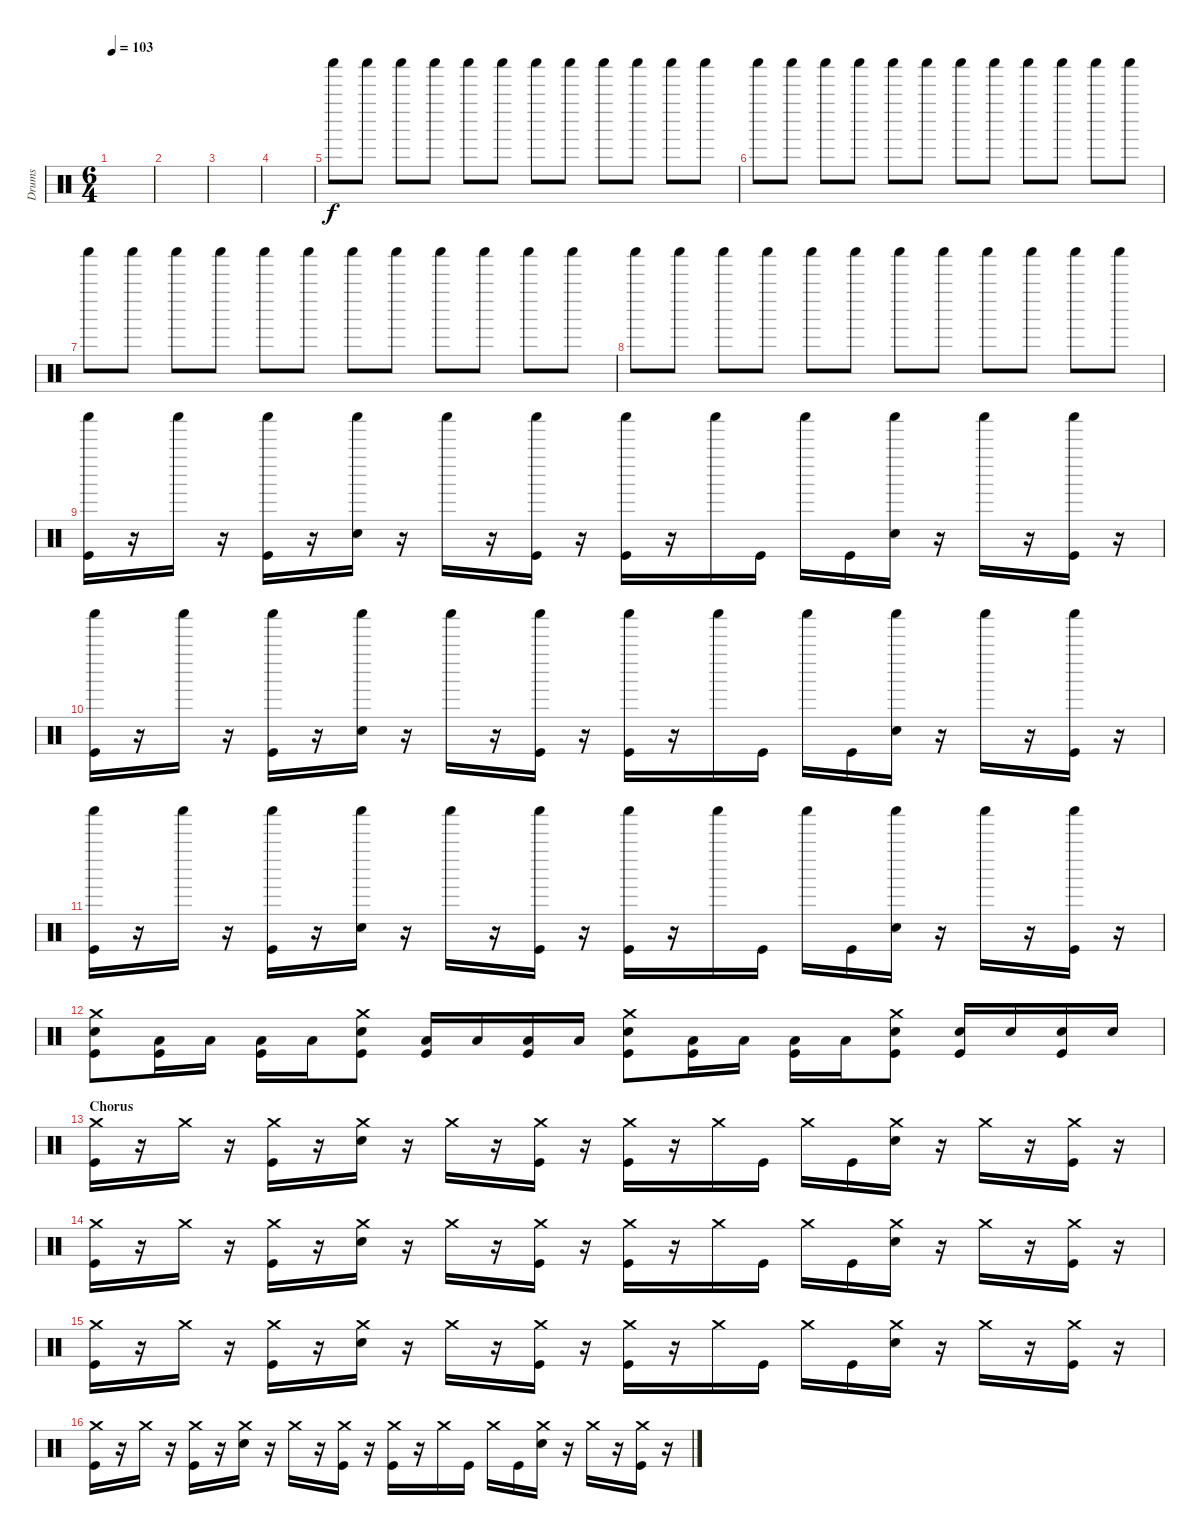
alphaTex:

\track ("Drums" "Drums") {instrument percussion}
\staff {score}
\articulation defaults
\ts (6 4)
\tempo 103
\clef neutral
\ks c
|
|
|
|
"Shaker (hit)".8{volume 8} "Shaker (hit)".8 "Shaker (hit)".8 "Shaker (hit)".8 "Shaker (hit)".8 "Shaker (hit)".8 "Shaker (hit)".8 "Shaker (hit)".8 "Shaker (hit)".8 "Shaker (hit)".8 "Shaker (hit)".8 "Shaker (hit)".8 |
"Shaker (hit)".8 "Shaker (hit)".8 "Shaker (hit)".8 "Shaker (hit)".8 "Shaker (hit)".8 "Shaker (hit)".8 "Shaker (hit)".8 "Shaker (hit)".8 "Shaker (hit)".8 "Shaker (hit)".8 "Shaker (hit)".8 "Shaker (hit)".8 |
"Shaker (hit)".8 "Shaker (hit)".8 "Shaker (hit)".8 "Shaker (hit)".8 "Shaker (hit)".8 "Shaker (hit)".8 "Shaker (hit)".8 "Shaker (hit)".8 "Shaker (hit)".8 "Shaker (hit)".8 "Shaker (hit)".8 "Shaker (hit)".8 |
"Shaker (hit)".8 "Shaker (hit)".8 "Shaker (hit)".8 "Shaker (hit)".8 "Shaker (hit)".8 "Shaker (hit)".8 "Shaker (hit)".8 "Shaker (hit)".8 "Shaker (hit)".8 "Shaker (hit)".8 "Shaker (hit)".8 "Shaker (hit)".8 |
("Shaker (hit)" "Kick (hit)").16 r.16 "Shaker (hit)".16 r.16 ("Shaker (hit)" "Kick (hit)").16 r.16 ("Shaker (hit)" "Electric Snare (hit)").16 r.16 "Shaker (hit)".16 r.16 ("Shaker (hit)" "Kick (hit)").16 r.16 ("Shaker (hit)" "Kick (hit)").16 r.16 "Shaker (hit)".16 "Kick (hit)".16 "Shaker (hit)".16 "Kick (hit)".16 ("Shaker (hit)" "Electric Snare (hit)").16 r.16 "Shaker (hit)".16 r.16 ("Shaker (hit)" "Kick (hit)").16 r.16 |
("Shaker (hit)" "Kick (hit)").16 r.16 "Shaker (hit)".16 r.16 ("Shaker (hit)" "Kick (hit)").16 r.16 ("Shaker (hit)" "Electric Snare (hit)").16 r.16 "Shaker (hit)".16 r.16 ("Shaker (hit)" "Kick (hit)").16 r.16 ("Shaker (hit)" "Kick (hit)").16 r.16 "Shaker (hit)".16 "Kick (hit)".16 "Shaker (hit)".16 "Kick (hit)".16 ("Shaker (hit)" "Electric Snare (hit)").16 r.16 "Shaker (hit)".16 r.16 ("Shaker (hit)" "Kick (hit)").16 r.16 |
("Shaker (hit)" "Kick (hit)").16 r.16 "Shaker (hit)".16 r.16 ("Shaker (hit)" "Kick (hit)").16 r.16 ("Shaker (hit)" "Electric Snare (hit)").16 r.16 "Shaker (hit)".16 r.16 ("Shaker (hit)" "Kick (hit)").16 r.16 ("Shaker (hit)" "Kick (hit)").16 r.16 "Shaker (hit)".16 "Kick (hit)".16 "Shaker (hit)".16 "Kick (hit)".16 ("Shaker (hit)" "Electric Snare (hit)").16 r.16 "Shaker (hit)".16 r.16 ("Shaker (hit)" "Kick (hit)").16 r.16 |
("Crash medium (hit)" "Electric Snare (hit)" "Kick (hit)").8{volume 13} ("Low Tom (hit)" "Kick (hit)").16 "Low Tom (hit)".16 ("Low Tom (hit)" "Kick (hit)").16 "Low Tom (hit)".16 ("Crash medium (hit)" "Electric Snare (hit)" "Kick (hit)").8 ("Low Tom (hit)" "Kick (hit)").16 "Low Tom (hit)".16 ("Low Tom (hit)" "Kick (hit)").16 "Low Tom (hit)".16 ("Crash medium (hit)" "Electric Snare (hit)" "Kick (hit)").8 ("Low Tom (hit)" "Kick (hit)").16 "Low Tom (hit)".16 ("Low Tom (hit)" "Kick (hit)").16 "Low Tom (hit)".16 ("Crash medium (hit)" "Electric Snare (hit)" "Kick (hit)").8 ("Electric Snare (hit)" "Kick (hit)").16 "Electric Snare (hit)".16 ("Electric Snare (hit)" "Kick (hit)").16 "Electric Snare (hit)".16 |
\section ("" "Chorus")
("Crash medium (hit)" "Kick (hit)").16 r.16 "Crash medium (hit)".16 r.16 ("Crash medium (hit)" "Kick (hit)").16 r.16 ("Crash medium (hit)" "Electric Snare (hit)").16 r.16 "Crash medium (hit)".16 r.16 ("Crash medium (hit)" "Kick (hit)").16 r.16 ("Crash medium (hit)" "Kick (hit)").16 r.16 "Crash medium (hit)".16 "Kick (hit)".16 "Crash medium (hit)".16 "Kick (hit)".16 ("Crash medium (hit)" "Electric Snare (hit)").16 r.16 "Crash medium (hit)".16 r.16 ("Crash medium (hit)" "Kick (hit)").16 r.16 |
("Crash medium (hit)" "Kick (hit)").16 r.16 "Crash medium (hit)".16 r.16 ("Crash medium (hit)" "Kick (hit)").16 r.16 ("Crash medium (hit)" "Electric Snare (hit)").16 r.16 "Crash medium (hit)".16 r.16 ("Crash medium (hit)" "Kick (hit)").16 r.16 ("Crash medium (hit)" "Kick (hit)").16 r.16 "Crash medium (hit)".16 "Kick (hit)".16 "Crash medium (hit)".16 "Kick (hit)".16 ("Crash medium (hit)" "Electric Snare (hit)").16 r.16 "Crash medium (hit)".16 r.16 ("Crash medium (hit)" "Kick (hit)").16 r.16 |
("Crash medium (hit)" "Kick (hit)").16 r.16 "Crash medium (hit)".16 r.16 ("Crash medium (hit)" "Kick (hit)").16 r.16 ("Crash medium (hit)" "Electric Snare (hit)").16 r.16 "Crash medium (hit)".16 r.16 ("Crash medium (hit)" "Kick (hit)").16 r.16 ("Crash medium (hit)" "Kick (hit)").16 r.16 "Crash medium (hit)".16 "Kick (hit)".16 "Crash medium (hit)".16 "Kick (hit)".16 ("Crash medium (hit)" "Electric Snare (hit)").16 r.16 "Crash medium (hit)".16 r.16 ("Crash medium (hit)" "Kick (hit)").16 r.16 |
("Crash medium (hit)" "Kick (hit)").16 r.16 "Crash medium (hit)".16 r.16 ("Crash medium (hit)" "Kick (hit)").16 r.16 ("Crash medium (hit)" "Electric Snare (hit)").16 r.16 "Crash medium (hit)".16 r.16 ("Crash medium (hit)" "Kick (hit)").16 r.16 ("Crash medium (hit)" "Kick (hit)").16 r.16 "Crash medium (hit)".16 "Kick (hit)".16 "Crash medium (hit)".16 "Kick (hit)".16 ("Crash medium (hit)" "Electric Snare (hit)").16 r.16 "Crash medium (hit)".16 r.16 ("Crash medium (hit)" "Kick (hit)").16 r.16
